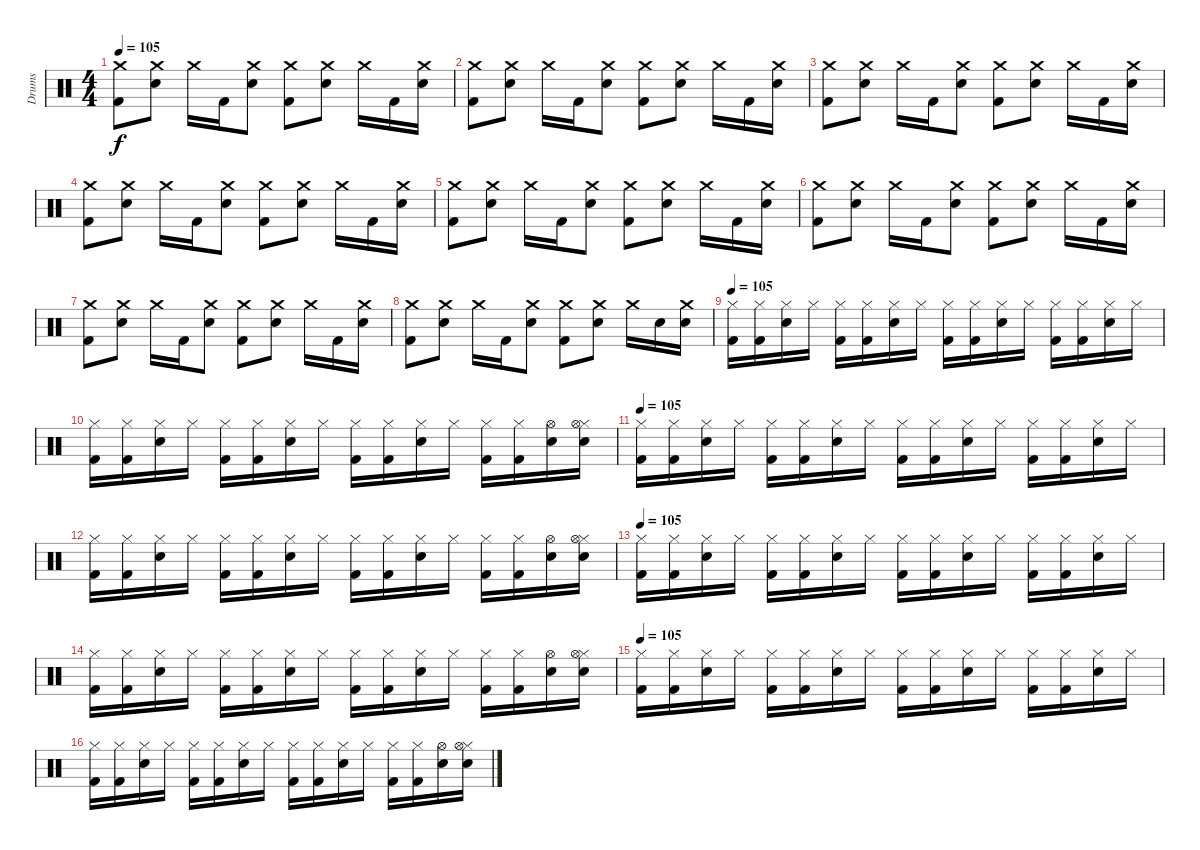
\track ("Drums" "Drums") {instrument percussion}
\staff {score}
\articulation defaults
\ts (4 4)
\tempo 105
\clef neutral
\ks c
("Crash medium (hit)" "Kick (hit) 2").8{dy f} ("Crash medium (hit)" "Snare (hit) 2").8 "Crash medium (hit)".16 "Kick (hit) 2".16 ("Crash medium (hit)" "Snare (hit) 2").8 ("Crash medium (hit)" "Kick (hit) 2").8 ("Crash medium (hit)" "Snare (hit) 2").8 "Crash medium (hit)".16 "Kick (hit) 2".16 ("Crash medium (hit)" "Snare (hit) 2").16 |
("Crash medium (hit)" "Kick (hit) 2").8 ("Crash medium (hit)" "Snare (hit) 2").8 "Crash medium (hit)".16 "Kick (hit) 2".16 ("Crash medium (hit)" "Snare (hit) 2").8 ("Crash medium (hit)" "Kick (hit) 2").8 ("Crash medium (hit)" "Snare (hit) 2").8 "Crash medium (hit)".16 "Kick (hit) 2".16 ("Crash medium (hit)" "Snare (hit) 2").16 |
("Crash medium (hit)" "Kick (hit) 2").8 ("Crash medium (hit)" "Snare (hit) 2").8 "Crash medium (hit)".16 "Kick (hit) 2".16 ("Crash medium (hit)" "Snare (hit) 2").8 ("Crash medium (hit)" "Kick (hit) 2").8 ("Crash medium (hit)" "Snare (hit) 2").8 "Crash medium (hit)".16 "Kick (hit) 2".16 ("Crash medium (hit)" "Snare (hit) 2").16 |
("Crash medium (hit)" "Kick (hit) 2").8 ("Crash medium (hit)" "Snare (hit) 2").8 "Crash medium (hit)".16 "Kick (hit) 2".16 ("Crash medium (hit)" "Snare (hit) 2").8 ("Crash medium (hit)" "Kick (hit) 2").8 ("Crash medium (hit)" "Snare (hit) 2").8 "Crash medium (hit)".16 "Kick (hit) 2".16 ("Crash medium (hit)" "Snare (hit) 2").16 |
("Crash medium (hit)" "Kick (hit) 2").8 ("Crash medium (hit)" "Snare (hit) 2").8 "Crash medium (hit)".16 "Kick (hit) 2".16 ("Crash medium (hit)" "Snare (hit) 2").8 ("Crash medium (hit)" "Kick (hit) 2").8 ("Crash medium (hit)" "Snare (hit) 2").8 "Crash medium (hit)".16 "Kick (hit) 2".16 ("Crash medium (hit)" "Snare (hit) 2").16 |
("Crash medium (hit)" "Kick (hit) 2").8 ("Crash medium (hit)" "Snare (hit) 2").8 "Crash medium (hit)".16 "Kick (hit) 2".16 ("Crash medium (hit)" "Snare (hit) 2").8 ("Crash medium (hit)" "Kick (hit) 2").8 ("Crash medium (hit)" "Snare (hit) 2").8 "Crash medium (hit)".16 "Kick (hit) 2".16 ("Crash medium (hit)" "Snare (hit) 2").16 |
("Crash medium (hit)" "Kick (hit) 2").8 ("Crash medium (hit)" "Snare (hit) 2").8 "Crash medium (hit)".16 "Kick (hit) 2".16 ("Crash medium (hit)" "Snare (hit) 2").8 ("Crash medium (hit)" "Kick (hit) 2").8 ("Crash medium (hit)" "Snare (hit) 2").8 "Crash medium (hit)".16 "Kick (hit) 2".16 ("Crash medium (hit)" "Snare (hit) 2").16 |
("Crash medium (hit)" "Kick (hit) 2").8 ("Crash medium (hit)" "Snare (hit) 2").8 "Crash medium (hit)".16 "Kick (hit) 2".16 ("Crash medium (hit)" "Snare (hit) 2").8 ("Crash medium (hit)" "Kick (hit) 2").8 ("Crash medium (hit)" "Snare (hit) 2").8 "Crash medium (hit)".16 "Snare (hit) 2".16 ("Crash medium (hit)" "Snare (hit) 2").16 |
\tempo 105
("Hi-Hat (closed)" "Kick (hit) 2").16 ("Hi-Hat (closed)" "Kick (hit) 2").16 ("Hi-Hat (closed)" "Snare (hit) 2").16 "Hi-Hat (closed)".16 ("Hi-Hat (closed)" "Kick (hit) 2").16 ("Hi-Hat (closed)" "Kick (hit) 2").16 ("Hi-Hat (closed)" "Snare (hit) 2").16 "Hi-Hat (closed)".16 ("Hi-Hat (closed)" "Kick (hit) 2").16 ("Hi-Hat (closed)" "Kick (hit) 2").16 ("Hi-Hat (closed)" "Snare (hit) 2").16 "Hi-Hat (closed)".16 ("Hi-Hat (closed)" "Kick (hit) 2").16 ("Hi-Hat (closed)" "Kick (hit) 2").16 ("Hi-Hat (closed)" "Snare (hit) 2").16 "Hi-Hat (closed)".16 |
("Hi-Hat (closed)" "Kick (hit) 2").16 ("Hi-Hat (closed)" "Kick (hit) 2").16 ("Hi-Hat (closed)" "Snare (hit) 2").16 "Hi-Hat (closed)".16 ("Hi-Hat (closed)" "Kick (hit) 2").16 ("Hi-Hat (closed)" "Kick (hit) 2").16 ("Hi-Hat (closed)" "Snare (hit) 2").16 "Hi-Hat (closed)".16 ("Hi-Hat (closed)" "Kick (hit) 2").16 ("Hi-Hat (closed)" "Kick (hit) 2").16 ("Hi-Hat (closed)" "Snare (hit) 2").16 "Hi-Hat (closed)".16 ("Hi-Hat (closed)" "Kick (hit) 2").16 ("Hi-Hat (closed)" "Kick (hit) 2").16 ("Hi-Hat (open)" "Snare (hit) 2").16 ("Hi-Hat (closed)" "Hi-Hat (open)" "Snare (hit) 2").16 |
\tempo 105
("Hi-Hat (closed)" "Kick (hit) 2").16 ("Hi-Hat (closed)" "Kick (hit) 2").16 ("Hi-Hat (closed)" "Snare (hit) 2").16 "Hi-Hat (closed)".16 ("Hi-Hat (closed)" "Kick (hit) 2").16 ("Hi-Hat (closed)" "Kick (hit) 2").16 ("Hi-Hat (closed)" "Snare (hit) 2").16 "Hi-Hat (closed)".16 ("Hi-Hat (closed)" "Kick (hit) 2").16 ("Hi-Hat (closed)" "Kick (hit) 2").16 ("Hi-Hat (closed)" "Snare (hit) 2").16 "Hi-Hat (closed)".16 ("Hi-Hat (closed)" "Kick (hit) 2").16 ("Hi-Hat (closed)" "Kick (hit) 2").16 ("Hi-Hat (closed)" "Snare (hit) 2").16 "Hi-Hat (closed)".16 |
("Hi-Hat (closed)" "Kick (hit) 2").16 ("Hi-Hat (closed)" "Kick (hit) 2").16 ("Hi-Hat (closed)" "Snare (hit) 2").16 "Hi-Hat (closed)".16 ("Hi-Hat (closed)" "Kick (hit) 2").16 ("Hi-Hat (closed)" "Kick (hit) 2").16 ("Hi-Hat (closed)" "Snare (hit) 2").16 "Hi-Hat (closed)".16 ("Hi-Hat (closed)" "Kick (hit) 2").16 ("Hi-Hat (closed)" "Kick (hit) 2").16 ("Hi-Hat (closed)" "Snare (hit) 2").16 "Hi-Hat (closed)".16 ("Hi-Hat (closed)" "Kick (hit) 2").16 ("Hi-Hat (closed)" "Kick (hit) 2").16 ("Hi-Hat (open)" "Snare (hit) 2").16 ("Hi-Hat (closed)" "Hi-Hat (open)" "Snare (hit) 2").16 |
\tempo 105
("Hi-Hat (closed)" "Kick (hit) 2").16 ("Hi-Hat (closed)" "Kick (hit) 2").16 ("Hi-Hat (closed)" "Snare (hit) 2").16 "Hi-Hat (closed)".16 ("Hi-Hat (closed)" "Kick (hit) 2").16 ("Hi-Hat (closed)" "Kick (hit) 2").16 ("Hi-Hat (closed)" "Snare (hit) 2").16 "Hi-Hat (closed)".16 ("Hi-Hat (closed)" "Kick (hit) 2").16 ("Hi-Hat (closed)" "Kick (hit) 2").16 ("Hi-Hat (closed)" "Snare (hit) 2").16 "Hi-Hat (closed)".16 ("Hi-Hat (closed)" "Kick (hit) 2").16 ("Hi-Hat (closed)" "Kick (hit) 2").16 ("Hi-Hat (closed)" "Snare (hit) 2").16 "Hi-Hat (closed)".16 |
("Hi-Hat (closed)" "Kick (hit) 2").16 ("Hi-Hat (closed)" "Kick (hit) 2").16 ("Hi-Hat (closed)" "Snare (hit) 2").16 "Hi-Hat (closed)".16 ("Hi-Hat (closed)" "Kick (hit) 2").16 ("Hi-Hat (closed)" "Kick (hit) 2").16 ("Hi-Hat (closed)" "Snare (hit) 2").16 "Hi-Hat (closed)".16 ("Hi-Hat (closed)" "Kick (hit) 2").16 ("Hi-Hat (closed)" "Kick (hit) 2").16 ("Hi-Hat (closed)" "Snare (hit) 2").16 "Hi-Hat (closed)".16 ("Hi-Hat (closed)" "Kick (hit) 2").16 ("Hi-Hat (closed)" "Kick (hit) 2").16 ("Hi-Hat (open)" "Snare (hit) 2").16 ("Hi-Hat (closed)" "Hi-Hat (open)" "Snare (hit) 2").16 |
\tempo 105
("Hi-Hat (closed)" "Kick (hit) 2").16 ("Hi-Hat (closed)" "Kick (hit) 2").16 ("Hi-Hat (closed)" "Snare (hit) 2").16 "Hi-Hat (closed)".16 ("Hi-Hat (closed)" "Kick (hit) 2").16 ("Hi-Hat (closed)" "Kick (hit) 2").16 ("Hi-Hat (closed)" "Snare (hit) 2").16 "Hi-Hat (closed)".16 ("Hi-Hat (closed)" "Kick (hit) 2").16 ("Hi-Hat (closed)" "Kick (hit) 2").16 ("Hi-Hat (closed)" "Snare (hit) 2").16 "Hi-Hat (closed)".16 ("Hi-Hat (closed)" "Kick (hit) 2").16 ("Hi-Hat (closed)" "Kick (hit) 2").16 ("Hi-Hat (closed)" "Snare (hit) 2").16 "Hi-Hat (closed)".16 |
("Hi-Hat (closed)" "Kick (hit) 2").16 ("Hi-Hat (closed)" "Kick (hit) 2").16 ("Hi-Hat (closed)" "Snare (hit) 2").16 "Hi-Hat (closed)".16 ("Hi-Hat (closed)" "Kick (hit) 2").16 ("Hi-Hat (closed)" "Kick (hit) 2").16 ("Hi-Hat (closed)" "Snare (hit) 2").16 "Hi-Hat (closed)".16 ("Hi-Hat (closed)" "Kick (hit) 2").16 ("Hi-Hat (closed)" "Kick (hit) 2").16 ("Hi-Hat (closed)" "Snare (hit) 2").16 "Hi-Hat (closed)".16 ("Hi-Hat (closed)" "Kick (hit) 2").16 ("Hi-Hat (closed)" "Kick (hit) 2").16 ("Hi-Hat (open)" "Snare (hit) 2").16 ("Hi-Hat (closed)" "Hi-Hat (open)" "Snare (hit) 2").16
